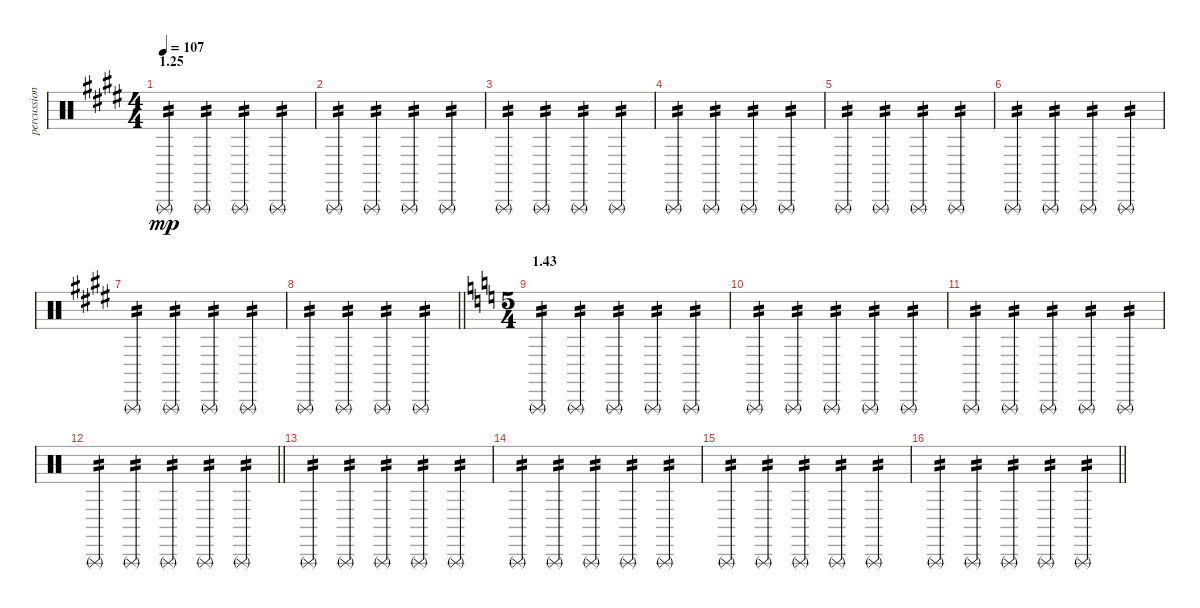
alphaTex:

\track ("percussion" "percussion") {instrument percussion}
\staff {score}
\articulation defaults
\ts (4 4)
\section ("" "1.25")
\tempo 107
\clef neutral
\ks c#minor "Triangle (rnute)".4{tp 2 dy mp} "Triangle (rnute)".4{tp 2} "Triangle (rnute)".4{tp 2} "Triangle (rnute)".4{tp 2}
|
"Triangle (rnute)".4{tp 2} "Triangle (rnute)".4{tp 2} "Triangle (rnute)".4{tp 2} "Triangle (rnute)".4{tp 2} |
"Triangle (rnute)".4{tp 2} "Triangle (rnute)".4{tp 2} "Triangle (rnute)".4{tp 2} "Triangle (rnute)".4{tp 2} |
"Triangle (rnute)".4{tp 2} "Triangle (rnute)".4{tp 2} "Triangle (rnute)".4{tp 2} "Triangle (rnute)".4{tp 2} |
"Triangle (rnute)".4{tp 2} "Triangle (rnute)".4{tp 2} "Triangle (rnute)".4{tp 2} "Triangle (rnute)".4{tp 2} |
"Triangle (rnute)".4{tp 2} "Triangle (rnute)".4{tp 2} "Triangle (rnute)".4{tp 2} "Triangle (rnute)".4{tp 2} |
"Triangle (rnute)".4{tp 2} "Triangle (rnute)".4{tp 2} "Triangle (rnute)".4{tp 2} "Triangle (rnute)".4{tp 2} |
\barLineRight lightlight "Triangle (rnute)".4{tp 2} "Triangle (rnute)".4{tp 2} "Triangle (rnute)".4{tp 2} "Triangle (rnute)".4{tp 2}
|
\ts (5 4)
\section ("" "1.43")
\ks c "Triangle (rnute)".4{tp 2} "Triangle (rnute)".4{tp 2} "Triangle (rnute)".4{tp 2} "Triangle (rnute)".4{tp 2} "Triangle (rnute)".4{tp 2}
|
"Triangle (rnute)".4{tp 2} "Triangle (rnute)".4{tp 2} "Triangle (rnute)".4{tp 2} "Triangle (rnute)".4{tp 2} "Triangle (rnute)".4{tp 2} |
"Triangle (rnute)".4{tp 2} "Triangle (rnute)".4{tp 2} "Triangle (rnute)".4{tp 2} "Triangle (rnute)".4{tp 2} "Triangle (rnute)".4{tp 2} |
\barLineRight lightlight "Triangle (rnute)".4{tp 2} "Triangle (rnute)".4{tp 2} "Triangle (rnute)".4{tp 2} "Triangle (rnute)".4{tp 2} "Triangle (rnute)".4{tp 2}
|
"Triangle (rnute)".4{tp 2} "Triangle (rnute)".4{tp 2} "Triangle (rnute)".4{tp 2} "Triangle (rnute)".4{tp 2} "Triangle (rnute)".4{tp 2} |
"Triangle (rnute)".4{tp 2} "Triangle (rnute)".4{tp 2} "Triangle (rnute)".4{tp 2} "Triangle (rnute)".4{tp 2} "Triangle (rnute)".4{tp 2} |
"Triangle (rnute)".4{tp 2} "Triangle (rnute)".4{tp 2} "Triangle (rnute)".4{tp 2} "Triangle (rnute)".4{tp 2} "Triangle (rnute)".4{tp 2} |
\barLineRight lightlight "Triangle (rnute)".4{tp 2} "Triangle (rnute)".4{tp 2} "Triangle (rnute)".4{tp 2} "Triangle (rnute)".4{tp 2} "Triangle (rnute)".4{tp 2}
